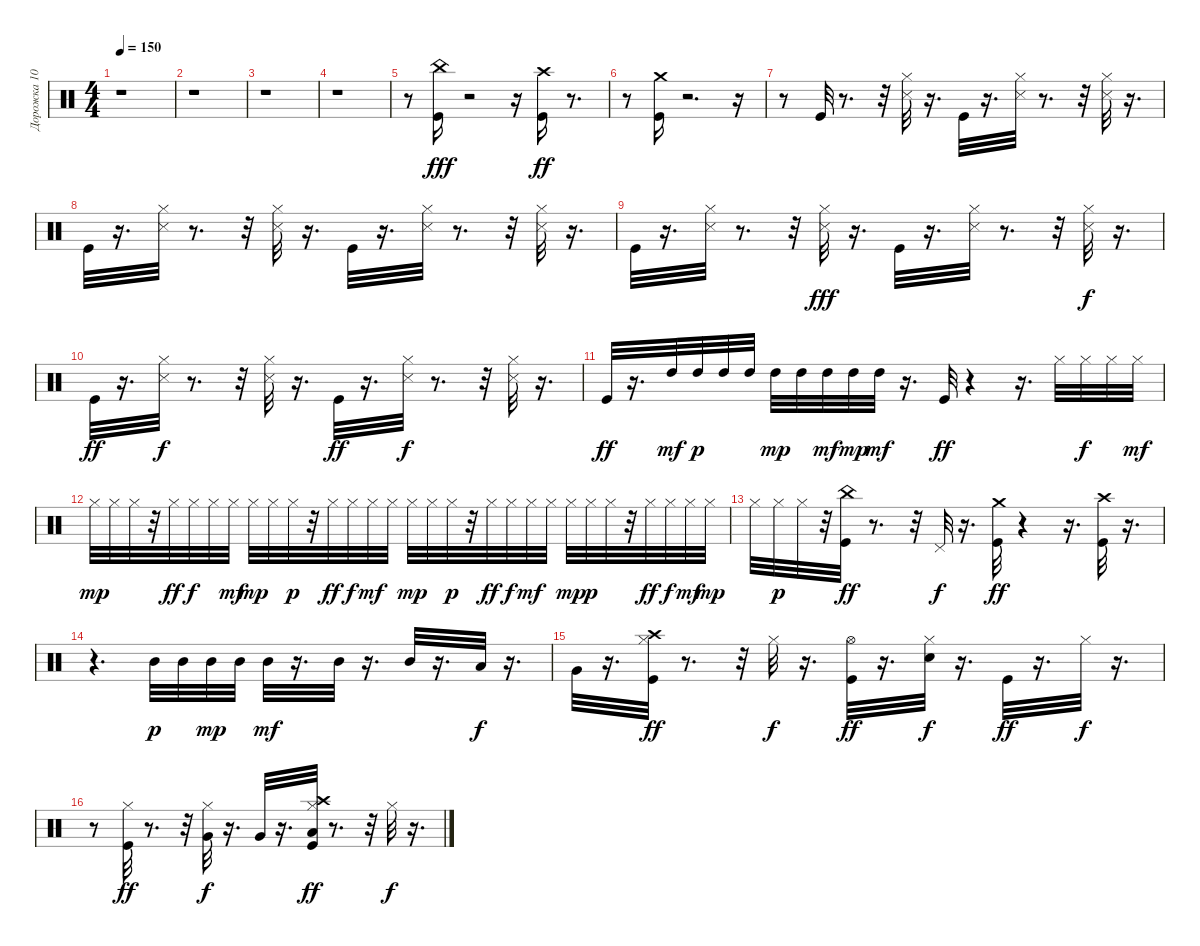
\track ("Дорожка 10" "Дорожка 10") {instrument percussion}
\staff {score}
\articulation defaults
\ts (4 4)
\tempo 150
\clef neutral
\ks c
r.1{dy fff} |
r.1 |
r.1 |
r.1 |
r.8 ("China (hit)" "Kick (hit)").16 r.2 r.16 ("Kick (hit)" "Crash high (hit)").16{dy ff} r.8{d} |
r.8 ("Kick (hit)" "Crash medium (hit)").16 r.2{d} r.16 |
r.8 "Kick (hit)".32 r.8{d} r.32 ("Hi-Hat (closed)" "Snare (side stick) 3").32 r.16{d} "Kick (hit)".32 r.16{d} ("Hi-Hat (closed)" "Snare (side stick) 3").32 r.8{d} r.32 ("Hi-Hat (closed)" "Snare (side stick) 3").32 r.16{d} |
"Kick (hit)".32 r.16{d} ("Hi-Hat (closed)" "Snare (side stick) 3").32 r.8{d} r.32 ("Hi-Hat (closed)" "Snare (side stick) 3").32 r.16{d} "Kick (hit)".32 r.16{d} ("Hi-Hat (closed)" "Snare (side stick) 3").32 r.8{d} r.32 ("Hi-Hat (closed)" "Snare (side stick) 3").32 r.16{d} |
"Kick (hit)".32 r.16{d} ("Hi-Hat (closed)" "Snare (side stick) 3").32 r.8{d} r.32 ("Hi-Hat (closed)" "Snare (side stick) 3").32{dy fff} r.16{d} "Kick (hit)".32 r.16{d} ("Hi-Hat (closed)" "Snare (side stick) 3").32 r.8{d} r.32 ("Hi-Hat (closed)" "Snare (side stick) 3").32{dy f} r.16{d} |
"Kick (hit)".32{dy ff} r.16{d} ("Hi-Hat (closed)" "Snare (side stick) 3").32{dy f} r.8{d} r.32 ("Hi-Hat (closed)" "Snare (side stick) 3").32 r.16{d} "Kick (hit)".32{dy ff} r.16{d} ("Snare (side stick) 3" "Hi-Hat (closed)").32{dy f} r.8{d} r.32 ("Snare (side stick) 3" "Hi-Hat (closed)").32 r.16{d} |
"Kick (hit)".32{dy ff} r.16{d} "High Tom (hit)".32{dy mf} "High Tom (hit)".32{dy p} "High Tom (hit)".32 "High Tom (hit)".32 "High Tom (hit)".32{dy mp} "High Tom (hit)".32 "High Tom (hit)".32{dy mf} "High Tom (hit)".32{dy mp} "High Tom (hit)".32{dy mf} r.16{d} "Kick (hit)".32{dy ff} r.4 r.16{d} "Hi-Hat (closed)".32 "Hi-Hat (closed)".32{dy f} "Hi-Hat (closed)".32 "Hi-Hat (closed)".32{dy mf} |
"Hi-Hat (closed)".32{dy mp} "Hi-Hat (closed)".32 "Hi-Hat (closed)".32 r.32 "Hi-Hat (closed)".32{dy ff} "Hi-Hat (closed)".32{dy f} "Hi-Hat (closed)".32 "Hi-Hat (closed)".32{dy mf} "Hi-Hat (closed)".32{dy mp} "Hi-Hat (closed)".32 "Hi-Hat (closed)".32{dy p} r.32 "Hi-Hat (closed)".32{dy ff} "Hi-Hat (closed)".32{dy f} "Hi-Hat (closed)".32{dy mf} "Hi-Hat (closed)".32 "Hi-Hat (closed)".32{dy mp} "Hi-Hat (closed)".32 "Hi-Hat (closed)".32{dy p} r.32 "Hi-Hat (closed)".32{dy ff} "Hi-Hat (closed)".32{dy f} "Hi-Hat (closed)".32{dy mf} "Hi-Hat (closed)".32 "Hi-Hat (closed)".32{dy mp} "Hi-Hat (closed)".32{dy p} "Hi-Hat (closed)".32 r.32 "Hi-Hat (closed)".32{dy ff} "Hi-Hat (closed)".32{dy f} "Hi-Hat (closed)".32{dy mf} "Hi-Hat (closed)".32{dy mp} |
"Hi-Hat (closed)".32 "Hi-Hat (closed)".32{dy p} "Hi-Hat (closed)".32 r.32 ("Kick (hit)" "China (hit)").32{dy ff} r.8{d} r.32 "Pedal Hi-Hat (hit)".32{dy f} r.16{d} ("Kick (hit)" "Crash medium (hit)").32{dy ff} r.4 r.16{d} ("Crash high (hit)" "Kick (hit)").32 r.16{d} |
r.4{d} "Mid Tom (hit)".32{dy p} "Mid Tom (hit)".32 "Mid Tom (hit)".32{dy mp} "Mid Tom (hit)".32 "Mid Tom (hit)".32{dy mf} r.16{d} "Mid Tom (hit)".32 r.16{d} "Mid Tom (hit)".32 r.16{d} "Low Tom (hit)".32{dy f} r.16{d} |
"Very Low Tom (hit)".32 r.16{d} ("Hi-Hat (closed)" "Kick (hit)" "Crash high (hit)").32{dy ff} r.8{d} r.32 "Hi-Hat (closed)".32{dy f} r.16{d} ("Kick (hit)" "Hi-Hat (open)").32{dy ff} r.16{d} ("Electric Snare (hit)" "Hi-Hat (closed)").32{dy f} r.16{d} "Kick (hit)".32{dy ff} r.16{d} "Hi-Hat (closed)".32{dy f} r.16{d} |
r.8 ("Hi-Hat (closed)" "Kick (hit)").32{dy ff} r.8{d} r.32 ("Hi-Hat (closed)" "Very Low Tom (hit)").32{dy f} r.16{d} "Very Low Tom (hit)".32 r.16{d} ("Low Floor Tom (hit)" "Crash high (hit)" "Kick (hit)" "Hi-Hat (closed)").32{dy ff} r.8{d} r.32 "Hi-Hat (closed)".32{dy f} r.16{d}
